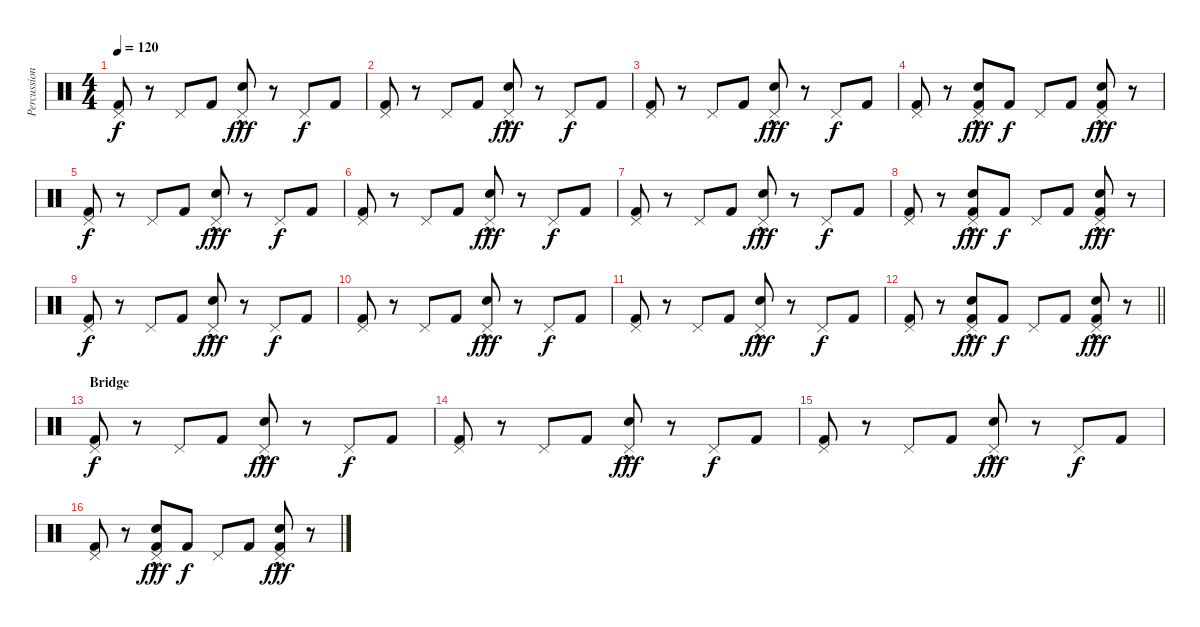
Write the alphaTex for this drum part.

\track ("Percussion" "Percussion") {instrument percussion}
\staff {score}
\articulation defaults
\ts (4 4)
\tempo 120
\clef neutral
\ks c
("Kick (hit) 2" "Pedal Hi-Hat (hit)").8{dy f} r.8 "Pedal Hi-Hat (hit)".8 "Kick (hit) 2".8 ("Snare (hit) 2"{hac} "Pedal Hi-Hat (hit)").8{dy fff} r.8 "Pedal Hi-Hat (hit)".8{dy f} "Kick (hit) 2".8 |
("Kick (hit) 2" "Pedal Hi-Hat (hit)").8 r.8 "Pedal Hi-Hat (hit)".8 "Kick (hit) 2".8 ("Snare (hit) 2"{hac} "Pedal Hi-Hat (hit)").8{dy fff} r.8 "Pedal Hi-Hat (hit)".8{dy f} "Kick (hit) 2".8 |
("Kick (hit) 2" "Pedal Hi-Hat (hit)").8 r.8 "Pedal Hi-Hat (hit)".8 "Kick (hit) 2".8 ("Snare (hit) 2"{hac} "Pedal Hi-Hat (hit)").8{dy fff} r.8 "Pedal Hi-Hat (hit)".8{dy f} "Kick (hit) 2".8 |
("Kick (hit) 2" "Pedal Hi-Hat (hit)").8 r.8 ("Kick (hit) 2" "Snare (hit) 2"{hac} "Pedal Hi-Hat (hit)").8{dy fff} "Kick (hit) 2".8{dy f} "Pedal Hi-Hat (hit)".8 "Kick (hit) 2".8 ("Kick (hit) 2" "Snare (hit) 2"{hac} "Pedal Hi-Hat (hit)").8{dy fff} r.8 |
("Kick (hit) 2" "Pedal Hi-Hat (hit)").8{dy f} r.8 "Pedal Hi-Hat (hit)".8 "Kick (hit) 2".8 ("Snare (hit) 2"{hac} "Pedal Hi-Hat (hit)").8{dy fff} r.8 "Pedal Hi-Hat (hit)".8{dy f} "Kick (hit) 2".8 |
("Kick (hit) 2" "Pedal Hi-Hat (hit)").8 r.8 "Pedal Hi-Hat (hit)".8 "Kick (hit) 2".8 ("Snare (hit) 2"{hac} "Pedal Hi-Hat (hit)").8{dy fff} r.8 "Pedal Hi-Hat (hit)".8{dy f} "Kick (hit) 2".8 |
("Kick (hit) 2" "Pedal Hi-Hat (hit)").8 r.8 "Pedal Hi-Hat (hit)".8 "Kick (hit) 2".8 ("Snare (hit) 2"{hac} "Pedal Hi-Hat (hit)").8{dy fff} r.8 "Pedal Hi-Hat (hit)".8{dy f} "Kick (hit) 2".8 |
("Kick (hit) 2" "Pedal Hi-Hat (hit)").8 r.8 ("Kick (hit) 2" "Snare (hit) 2"{hac} "Pedal Hi-Hat (hit)").8{dy fff} "Kick (hit) 2".8{dy f} "Pedal Hi-Hat (hit)".8 "Kick (hit) 2".8 ("Kick (hit) 2" "Snare (hit) 2"{hac} "Pedal Hi-Hat (hit)").8{dy fff} r.8 |
("Kick (hit) 2" "Pedal Hi-Hat (hit)").8{dy f} r.8 "Pedal Hi-Hat (hit)".8 "Kick (hit) 2".8 ("Snare (hit) 2"{hac} "Pedal Hi-Hat (hit)").8{dy fff} r.8 "Pedal Hi-Hat (hit)".8{dy f} "Kick (hit) 2".8 |
("Kick (hit) 2" "Pedal Hi-Hat (hit)").8 r.8 "Pedal Hi-Hat (hit)".8 "Kick (hit) 2".8 ("Snare (hit) 2"{hac} "Pedal Hi-Hat (hit)").8{dy fff} r.8 "Pedal Hi-Hat (hit)".8{dy f} "Kick (hit) 2".8 |
("Kick (hit) 2" "Pedal Hi-Hat (hit)").8 r.8 "Pedal Hi-Hat (hit)".8 "Kick (hit) 2".8 ("Snare (hit) 2"{hac} "Pedal Hi-Hat (hit)").8{dy fff} r.8 "Pedal Hi-Hat (hit)".8{dy f} "Kick (hit) 2".8 |
\barLineRight lightlight
("Kick (hit) 2" "Pedal Hi-Hat (hit)").8 r.8 ("Kick (hit) 2" "Snare (hit) 2"{hac} "Pedal Hi-Hat (hit)").8{dy fff} "Kick (hit) 2".8{dy f} "Pedal Hi-Hat (hit)".8 "Kick (hit) 2".8 ("Kick (hit) 2" "Snare (hit) 2"{hac} "Pedal Hi-Hat (hit)").8{dy fff} r.8 |
\section ("" "Bridge")
("Kick (hit) 2" "Pedal Hi-Hat (hit)").8{dy f} r.8 "Pedal Hi-Hat (hit)".8 "Kick (hit) 2".8 ("Snare (hit) 2"{hac} "Pedal Hi-Hat (hit)").8{dy fff} r.8 "Pedal Hi-Hat (hit)".8{dy f} "Kick (hit) 2".8 |
("Kick (hit) 2" "Pedal Hi-Hat (hit)").8 r.8 "Pedal Hi-Hat (hit)".8 "Kick (hit) 2".8 ("Snare (hit) 2"{hac} "Pedal Hi-Hat (hit)").8{dy fff} r.8 "Pedal Hi-Hat (hit)".8{dy f} "Kick (hit) 2".8 |
("Kick (hit) 2" "Pedal Hi-Hat (hit)").8 r.8 "Pedal Hi-Hat (hit)".8 "Kick (hit) 2".8 ("Snare (hit) 2"{hac} "Pedal Hi-Hat (hit)").8{dy fff} r.8 "Pedal Hi-Hat (hit)".8{dy f} "Kick (hit) 2".8 |
("Kick (hit) 2" "Pedal Hi-Hat (hit)").8 r.8 ("Kick (hit) 2" "Snare (hit) 2"{hac} "Pedal Hi-Hat (hit)").8{dy fff} "Kick (hit) 2".8{dy f} "Pedal Hi-Hat (hit)".8 "Kick (hit) 2".8 ("Kick (hit) 2" "Snare (hit) 2"{hac} "Pedal Hi-Hat (hit)").8{dy fff} r.8
